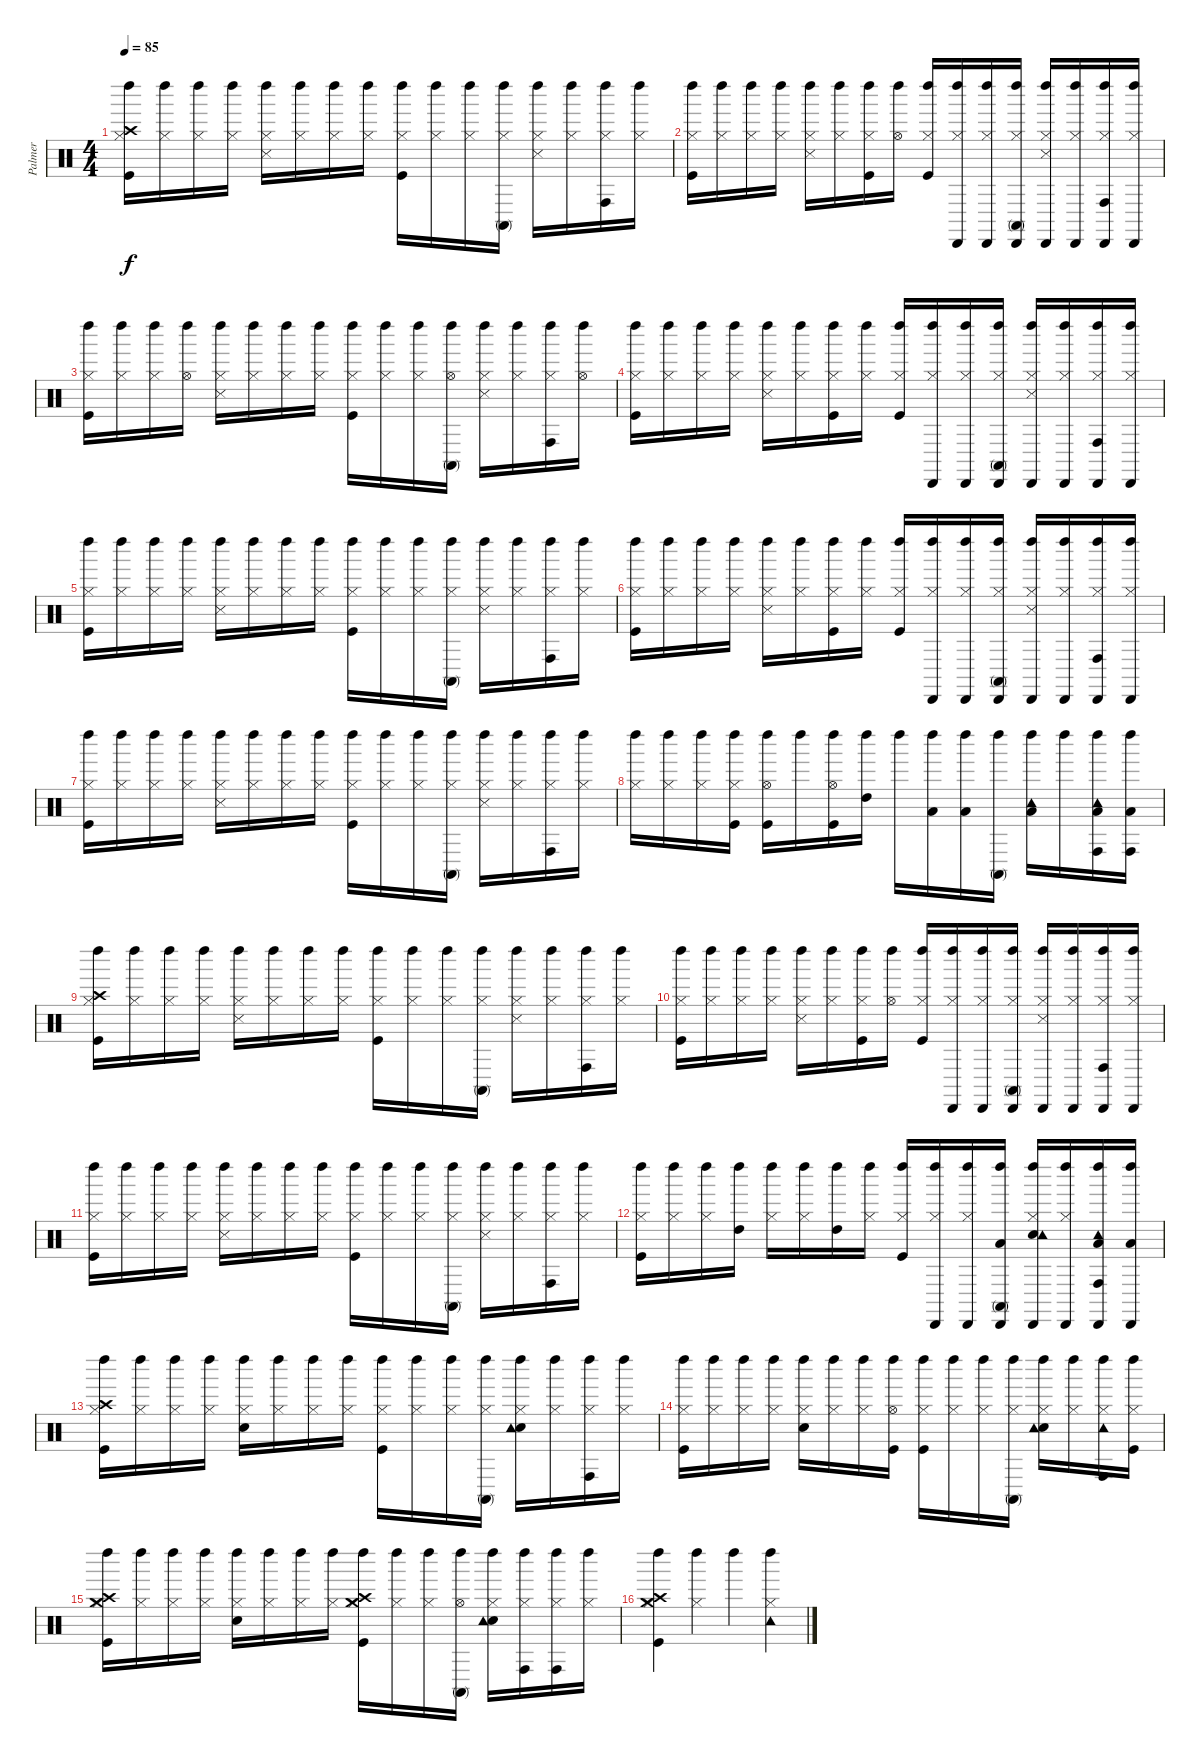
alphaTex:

\track ("Palmer" "Palmer") {instrument percussion}
\staff {score}
\articulation defaults
\ts (4 4)
\tempo 85
\clef neutral
\ks c
("Kick (hit)" "Hi-Hat (closed)" "Crash high (hit)" "Left Maraca (hit)").16{dy f} ("Hi-Hat (closed)" "Left Maraca (hit)").16 ("Hi-Hat (closed)" "Left Maraca (hit)").16 ("Hi-Hat (closed)" "Left Maraca (hit)").16 ("Hi-Hat (closed)" "Snare (side stick) 3" "Left Maraca (hit)").16 ("Hi-Hat (closed)" "Left Maraca (hit)").16 ("Hi-Hat (closed)" "Left Maraca (hit)").16 ("Hi-Hat (closed)" "Left Maraca (hit)").16 ("Kick (hit)" "Hi-Hat (closed)" "Left Maraca (hit)").16 ("Hi-Hat (closed)" "Left Maraca (hit)").16 ("Hi-Hat (closed)" "Left Maraca (hit)").16 ("Hi-Hat (closed)" "Conga high (mute)" "Left Maraca (hit)").16 ("Hi-Hat (closed)" "Snare (side stick) 3" "Left Maraca (hit)").16 ("Hi-Hat (closed)" "Left Maraca (hit)").16 ("Hi-Hat (closed)" "Conga high (hit)" "Left Maraca (hit)").16 ("Hi-Hat (closed)" "Left Maraca (hit)").16 |
("Kick (hit)" "Hi-Hat (closed)" "Left Maraca (hit)").16 ("Hi-Hat (closed)" "Left Maraca (hit)").16 ("Hi-Hat (closed)" "Left Maraca (hit)").16 ("Hi-Hat (closed)" "Left Maraca (hit)").16 ("Hi-Hat (closed)" "Snare (side stick) 3" "Left Maraca (hit)").16 ("Hi-Hat (closed)" "Left Maraca (hit)").16 ("Kick (hit)" "Hi-Hat (closed)" "Left Maraca (hit)").16 ("Hi-Hat (open)" "Left Maraca (hit)").16 ("Kick (hit)" "Hi-Hat (closed)" "Left Maraca (hit)").16 ("Hi-Hat (closed)" "Left Maraca (hit)" "Cabasa (hit)").16 ("Hi-Hat (closed)" "Left Maraca (hit)" "Cabasa (hit)").16 ("Hi-Hat (closed)" "Conga high (mute)" "Left Maraca (hit)" "Cabasa (hit)").16 ("Hi-Hat (closed)" "Snare (side stick) 3" "Left Maraca (hit)" "Cabasa (hit)").16 ("Hi-Hat (closed)" "Left Maraca (hit)" "Cabasa (hit)").16 ("Hi-Hat (closed)" "Conga high (hit)" "Left Maraca (hit)" "Cabasa (hit)").16 ("Hi-Hat (closed)" "Left Maraca (hit)" "Cabasa (hit)").16 |
("Kick (hit)" "Hi-Hat (closed)" "Left Maraca (hit)").16 ("Hi-Hat (closed)" "Left Maraca (hit)").16 ("Hi-Hat (closed)" "Left Maraca (hit)").16 ("Hi-Hat (open)" "Left Maraca (hit)").16 ("Hi-Hat (closed)" "Snare (side stick) 3" "Left Maraca (hit)").16 ("Hi-Hat (closed)" "Left Maraca (hit)").16 ("Hi-Hat (closed)" "Left Maraca (hit)").16 ("Hi-Hat (closed)" "Left Maraca (hit)").16 ("Kick (hit)" "Hi-Hat (closed)" "Left Maraca (hit)").16 ("Hi-Hat (closed)" "Left Maraca (hit)").16 ("Hi-Hat (closed)" "Left Maraca (hit)").16 ("Hi-Hat (open)" "Conga high (mute)" "Left Maraca (hit)").16 ("Hi-Hat (closed)" "Snare (side stick) 3" "Left Maraca (hit)").16 ("Hi-Hat (closed)" "Left Maraca (hit)").16 ("Hi-Hat (closed)" "Conga high (hit)" "Left Maraca (hit)").16 ("Hi-Hat (open)" "Left Maraca (hit)").16 |
("Kick (hit)" "Hi-Hat (closed)" "Left Maraca (hit)").16 ("Hi-Hat (closed)" "Left Maraca (hit)").16 ("Hi-Hat (closed)" "Left Maraca (hit)").16 ("Hi-Hat (closed)" "Left Maraca (hit)").16 ("Hi-Hat (closed)" "Snare (side stick) 3" "Left Maraca (hit)").16 ("Hi-Hat (closed)" "Left Maraca (hit)").16 ("Kick (hit)" "Hi-Hat (closed)" "Left Maraca (hit)").16 ("Hi-Hat (closed)" "Left Maraca (hit)").16 ("Kick (hit)" "Hi-Hat (closed)" "Left Maraca (hit)").16 ("Hi-Hat (closed)" "Left Maraca (hit)" "Cabasa (hit)").16 ("Hi-Hat (closed)" "Left Maraca (hit)" "Cabasa (hit)").16 ("Hi-Hat (closed)" "Conga high (mute)" "Left Maraca (hit)" "Cabasa (hit)").16 ("Hi-Hat (closed)" "Snare (side stick) 3" "Left Maraca (hit)" "Cabasa (hit)").16 ("Hi-Hat (closed)" "Left Maraca (hit)" "Cabasa (hit)").16 ("Hi-Hat (closed)" "Conga high (hit)" "Left Maraca (hit)" "Cabasa (hit)").16 ("Hi-Hat (closed)" "Left Maraca (hit)" "Cabasa (hit)").16 |
("Kick (hit)" "Hi-Hat (closed)" "Left Maraca (hit)").16 ("Hi-Hat (closed)" "Left Maraca (hit)").16 ("Hi-Hat (closed)" "Left Maraca (hit)").16 ("Hi-Hat (closed)" "Left Maraca (hit)").16 ("Hi-Hat (closed)" "Snare (side stick) 3" "Left Maraca (hit)").16 ("Hi-Hat (closed)" "Left Maraca (hit)").16 ("Hi-Hat (closed)" "Left Maraca (hit)").16 ("Hi-Hat (closed)" "Left Maraca (hit)").16 ("Kick (hit)" "Hi-Hat (closed)" "Left Maraca (hit)").16 ("Hi-Hat (closed)" "Left Maraca (hit)").16 ("Hi-Hat (closed)" "Left Maraca (hit)").16 ("Hi-Hat (closed)" "Conga high (mute)" "Left Maraca (hit)").16 ("Hi-Hat (closed)" "Snare (side stick) 3" "Left Maraca (hit)").16 ("Hi-Hat (closed)" "Left Maraca (hit)").16 ("Hi-Hat (closed)" "Conga high (hit)" "Left Maraca (hit)").16 ("Hi-Hat (closed)" "Left Maraca (hit)").16 |
("Kick (hit)" "Hi-Hat (closed)" "Left Maraca (hit)").16 ("Hi-Hat (closed)" "Left Maraca (hit)").16 ("Hi-Hat (closed)" "Left Maraca (hit)").16 ("Hi-Hat (closed)" "Left Maraca (hit)").16 ("Hi-Hat (closed)" "Snare (side stick) 3" "Left Maraca (hit)").16 ("Hi-Hat (closed)" "Left Maraca (hit)").16 ("Kick (hit)" "Hi-Hat (closed)" "Left Maraca (hit)").16 ("Hi-Hat (closed)" "Left Maraca (hit)").16 ("Kick (hit)" "Hi-Hat (closed)" "Left Maraca (hit)").16 ("Hi-Hat (closed)" "Left Maraca (hit)" "Cabasa (hit)").16 ("Hi-Hat (closed)" "Left Maraca (hit)" "Cabasa (hit)").16 ("Hi-Hat (closed)" "Conga high (mute)" "Left Maraca (hit)" "Cabasa (hit)").16 ("Hi-Hat (closed)" "Snare (side stick) 3" "Left Maraca (hit)" "Cabasa (hit)").16 ("Hi-Hat (closed)" "Left Maraca (hit)" "Cabasa (hit)").16 ("Hi-Hat (closed)" "Conga high (hit)" "Left Maraca (hit)" "Cabasa (hit)").16 ("Hi-Hat (closed)" "Left Maraca (hit)" "Cabasa (hit)").16 |
("Kick (hit)" "Hi-Hat (closed)" "Left Maraca (hit)").16 ("Hi-Hat (closed)" "Left Maraca (hit)").16 ("Hi-Hat (closed)" "Left Maraca (hit)").16 ("Hi-Hat (closed)" "Left Maraca (hit)").16 ("Hi-Hat (closed)" "Snare (side stick) 3" "Left Maraca (hit)").16 ("Hi-Hat (closed)" "Left Maraca (hit)").16 ("Hi-Hat (closed)" "Left Maraca (hit)").16 ("Hi-Hat (closed)" "Left Maraca (hit)").16 ("Kick (hit)" "Hi-Hat (closed)" "Left Maraca (hit)").16 ("Hi-Hat (closed)" "Left Maraca (hit)").16 ("Hi-Hat (closed)" "Left Maraca (hit)").16 ("Hi-Hat (closed)" "Conga high (mute)" "Left Maraca (hit)").16 ("Hi-Hat (closed)" "Snare (side stick) 3" "Left Maraca (hit)").16 ("Hi-Hat (closed)" "Left Maraca (hit)").16 ("Hi-Hat (closed)" "Conga high (hit)" "Left Maraca (hit)").16 ("Hi-Hat (closed)" "Left Maraca (hit)").16 |
("Hi-Hat (closed)" "Left Maraca (hit)").16 ("Hi-Hat (closed)" "Left Maraca (hit)").16 ("Hi-Hat (closed)" "Left Maraca (hit)").16 ("Kick (hit)" "Hi-Hat (closed)" "Left Maraca (hit)").16 ("Kick (hit)" "Hi-Hat (open)" "Left Maraca (hit)").16 "Left Maraca (hit)".16 ("Kick (hit)" "Hi-Hat (open)" "Left Maraca (hit)").16 ("High Tom (hit)" "Left Maraca (hit)").16 "Left Maraca (hit)".16 ("Low Tom (hit)" "Left Maraca (hit)").16 ("Low Tom (hit)" "Left Maraca (hit)").16 ("Conga high (mute)" "Left Maraca (hit)").16 ("Low Tom (hit)" "Tambourine (hit)" "Left Maraca (hit)").16 "Left Maraca (hit)".16 ("Low Floor Tom (hit)" "Conga high (hit)" "Tambourine (hit)" "Left Maraca (hit)").16 ("Low Floor Tom (hit)" "Conga high (hit)" "Left Maraca (hit)").16 |
("Kick (hit)" "Hi-Hat (closed)" "Crash high (hit)" "Left Maraca (hit)").16 ("Hi-Hat (closed)" "Left Maraca (hit)").16 ("Hi-Hat (closed)" "Left Maraca (hit)").16 ("Hi-Hat (closed)" "Left Maraca (hit)").16 ("Hi-Hat (closed)" "Snare (side stick) 3" "Left Maraca (hit)").16 ("Hi-Hat (closed)" "Left Maraca (hit)").16 ("Hi-Hat (closed)" "Left Maraca (hit)").16 ("Hi-Hat (closed)" "Left Maraca (hit)").16 ("Kick (hit)" "Hi-Hat (closed)" "Left Maraca (hit)").16 ("Hi-Hat (closed)" "Left Maraca (hit)").16 ("Hi-Hat (closed)" "Left Maraca (hit)").16 ("Hi-Hat (closed)" "Conga high (mute)" "Left Maraca (hit)").16 ("Hi-Hat (closed)" "Snare (side stick) 3" "Left Maraca (hit)").16 ("Hi-Hat (closed)" "Left Maraca (hit)").16 ("Hi-Hat (closed)" "Conga high (hit)" "Left Maraca (hit)").16 ("Hi-Hat (closed)" "Left Maraca (hit)").16 |
("Kick (hit)" "Hi-Hat (closed)" "Left Maraca (hit)").16 ("Hi-Hat (closed)" "Left Maraca (hit)").16 ("Hi-Hat (closed)" "Left Maraca (hit)").16 ("Hi-Hat (closed)" "Left Maraca (hit)").16 ("Hi-Hat (closed)" "Snare (side stick) 3" "Left Maraca (hit)").16 ("Hi-Hat (closed)" "Left Maraca (hit)").16 ("Kick (hit)" "Hi-Hat (closed)" "Left Maraca (hit)").16 ("Hi-Hat (open)" "Left Maraca (hit)").16 ("Kick (hit)" "Hi-Hat (closed)" "Left Maraca (hit)").16 ("Hi-Hat (closed)" "Left Maraca (hit)" "Cabasa (hit)").16 ("Hi-Hat (closed)" "Left Maraca (hit)" "Cabasa (hit)").16 ("Hi-Hat (closed)" "Conga high (mute)" "Left Maraca (hit)" "Cabasa (hit)").16 ("Hi-Hat (closed)" "Snare (side stick) 3" "Left Maraca (hit)" "Cabasa (hit)").16 ("Hi-Hat (closed)" "Left Maraca (hit)" "Cabasa (hit)").16 ("Hi-Hat (closed)" "Conga high (hit)" "Left Maraca (hit)" "Cabasa (hit)").16 ("Hi-Hat (closed)" "Left Maraca (hit)" "Cabasa (hit)").16 |
("Kick (hit)" "Hi-Hat (closed)" "Left Maraca (hit)").16 ("Hi-Hat (closed)" "Left Maraca (hit)").16 ("Hi-Hat (closed)" "Left Maraca (hit)").16 ("Hi-Hat (closed)" "Left Maraca (hit)").16 ("Hi-Hat (closed)" "Snare (side stick) 3" "Left Maraca (hit)").16 ("Hi-Hat (closed)" "Left Maraca (hit)").16 ("Hi-Hat (closed)" "Left Maraca (hit)").16 ("Hi-Hat (closed)" "Left Maraca (hit)").16 ("Kick (hit)" "Hi-Hat (closed)" "Left Maraca (hit)").16 ("Hi-Hat (closed)" "Left Maraca (hit)").16 ("Hi-Hat (closed)" "Left Maraca (hit)").16 ("Hi-Hat (closed)" "Conga high (mute)" "Left Maraca (hit)").16 ("Hi-Hat (closed)" "Snare (side stick) 3" "Left Maraca (hit)").16 ("Hi-Hat (closed)" "Left Maraca (hit)").16 ("Hi-Hat (closed)" "Conga high (hit)" "Left Maraca (hit)").16 ("Hi-Hat (closed)" "Left Maraca (hit)").16 |
("Kick (hit)" "Hi-Hat (closed)" "Left Maraca (hit)").16 ("Hi-Hat (closed)" "Left Maraca (hit)").16 ("Hi-Hat (closed)" "Left Maraca (hit)").16 ("High Tom (hit)" "Left Maraca (hit)").16 ("Hi-Hat (closed)" "Left Maraca (hit)").16 ("Hi-Hat (closed)" "Left Maraca (hit)").16 ("High Tom (hit)" "Left Maraca (hit)").16 ("Hi-Hat (closed)" "Left Maraca (hit)").16 ("Kick (hit)" "Hi-Hat (closed)" "Left Maraca (hit)").16 ("Hi-Hat (closed)" "Left Maraca (hit)" "Cabasa (hit)").16 ("Hi-Hat (closed)" "Left Maraca (hit)" "Cabasa (hit)").16 ("Low Tom (hit)" "Conga high (mute)" "Left Maraca (hit)" "Cabasa (hit)").16 ("Snare (hit) 2" "Hi-Hat (closed)" "Tambourine (hit)" "Left Maraca (hit)" "Cabasa (hit)").16 ("Hi-Hat (closed)" "Left Maraca (hit)" "Cabasa (hit)").16 ("Low Floor Tom (hit)" "Conga high (hit)" "Tambourine (hit)" "Left Maraca (hit)" "Cabasa (hit)").16 ("Low Floor Tom (hit)" "Left Maraca (hit)" "Cabasa (hit)").16 |
("Kick (hit)" "Hi-Hat (closed)" "Crash high (hit)" "Left Maraca (hit)").16 ("Hi-Hat (closed)" "Left Maraca (hit)").16 ("Hi-Hat (closed)" "Left Maraca (hit)").16 ("Hi-Hat (closed)" "Left Maraca (hit)").16 ("Snare (hit) 2" "Hi-Hat (closed)" "Left Maraca (hit)").16 ("Hi-Hat (closed)" "Left Maraca (hit)").16 ("Hi-Hat (closed)" "Left Maraca (hit)").16 ("Hi-Hat (closed)" "Left Maraca (hit)").16 ("Kick (hit)" "Hi-Hat (closed)" "Left Maraca (hit)").16 ("Hi-Hat (closed)" "Left Maraca (hit)").16 ("Hi-Hat (closed)" "Left Maraca (hit)").16 ("Hi-Hat (closed)" "Conga high (mute)" "Left Maraca (hit)").16 ("Snare (hit) 2" "Hi-Hat (closed)" "Tambourine (hit)" "Left Maraca (hit)").16 ("Hi-Hat (closed)" "Left Maraca (hit)").16 ("Hi-Hat (closed)" "Conga high (hit)" "Left Maraca (hit)").16 ("Hi-Hat (closed)" "Left Maraca (hit)").16 |
("Kick (hit)" "Hi-Hat (closed)" "Left Maraca (hit)").16 ("Hi-Hat (closed)" "Left Maraca (hit)").16 ("Hi-Hat (closed)" "Left Maraca (hit)").16 ("Hi-Hat (closed)" "Left Maraca (hit)").16 ("Snare (hit) 2" "Hi-Hat (closed)" "Left Maraca (hit)").16 ("Hi-Hat (closed)" "Left Maraca (hit)").16 ("Hi-Hat (closed)" "Left Maraca (hit)").16 ("Kick (hit)" "Hi-Hat (open)" "Left Maraca (hit)").16 ("Kick (hit)" "Hi-Hat (closed)" "Left Maraca (hit)").16 ("Hi-Hat (closed)" "Left Maraca (hit)").16 ("Hi-Hat (closed)" "Left Maraca (hit)").16 ("Hi-Hat (closed)" "Conga high (mute)" "Left Maraca (hit)").16 ("Snare (hit) 2" "Hi-Hat (closed)" "Tambourine (hit)" "Left Maraca (hit)").16 ("Hi-Hat (closed)" "Left Maraca (hit)").16 ("Hi-Hat (closed)" "Conga high (hit)" "Tambourine (hit)" "Left Maraca (hit)").16 ("Kick (hit)" "Hi-Hat (closed)" "Left Maraca (hit)").16 |
("Crash medium (hit)" "Crash high (hit)" "Kick (hit)" "Hi-Hat (closed)" "Left Maraca (hit)").16 ("Hi-Hat (closed)" "Left Maraca (hit)").16 ("Hi-Hat (closed)" "Left Maraca (hit)").16 ("Hi-Hat (closed)" "Left Maraca (hit)").16 ("Snare (hit) 2" "Hi-Hat (closed)" "Left Maraca (hit)").16 ("Hi-Hat (closed)" "Left Maraca (hit)").16 ("Hi-Hat (closed)" "Left Maraca (hit)").16 ("Hi-Hat (closed)" "Left Maraca (hit)").16 ("Crash medium (hit)" "Crash high (hit)" "Kick (hit)" "Hi-Hat (closed)" "Left Maraca (hit)").16 ("Hi-Hat (closed)" "Left Maraca (hit)").16 ("Hi-Hat (closed)" "Left Maraca (hit)").16 ("Hi-Hat (open)" "Conga high (mute)" "Left Maraca (hit)").16 ("Snare (hit) 2" "Hi-Hat (closed)" "Tambourine (hit)" "Left Maraca (hit)").16 ("Hi-Hat (closed)" "Conga high (hit)" "Left Maraca (hit)").16 ("Hi-Hat (closed)" "Conga high (hit)" "Left Maraca (hit)").16 ("Hi-Hat (closed)" "Left Maraca (hit)").16 |
("Crash medium (hit)" "Crash high (hit)" "Kick (hit)" "Hi-Hat (closed)" "Left Maraca (hit)").4 ("Hi-Hat (closed)" "Left Maraca (hit)").4 "Left Maraca (hit)".4 ("Hi-Hat (closed)" "Tambourine (hit)" "Left Maraca (hit)").4
